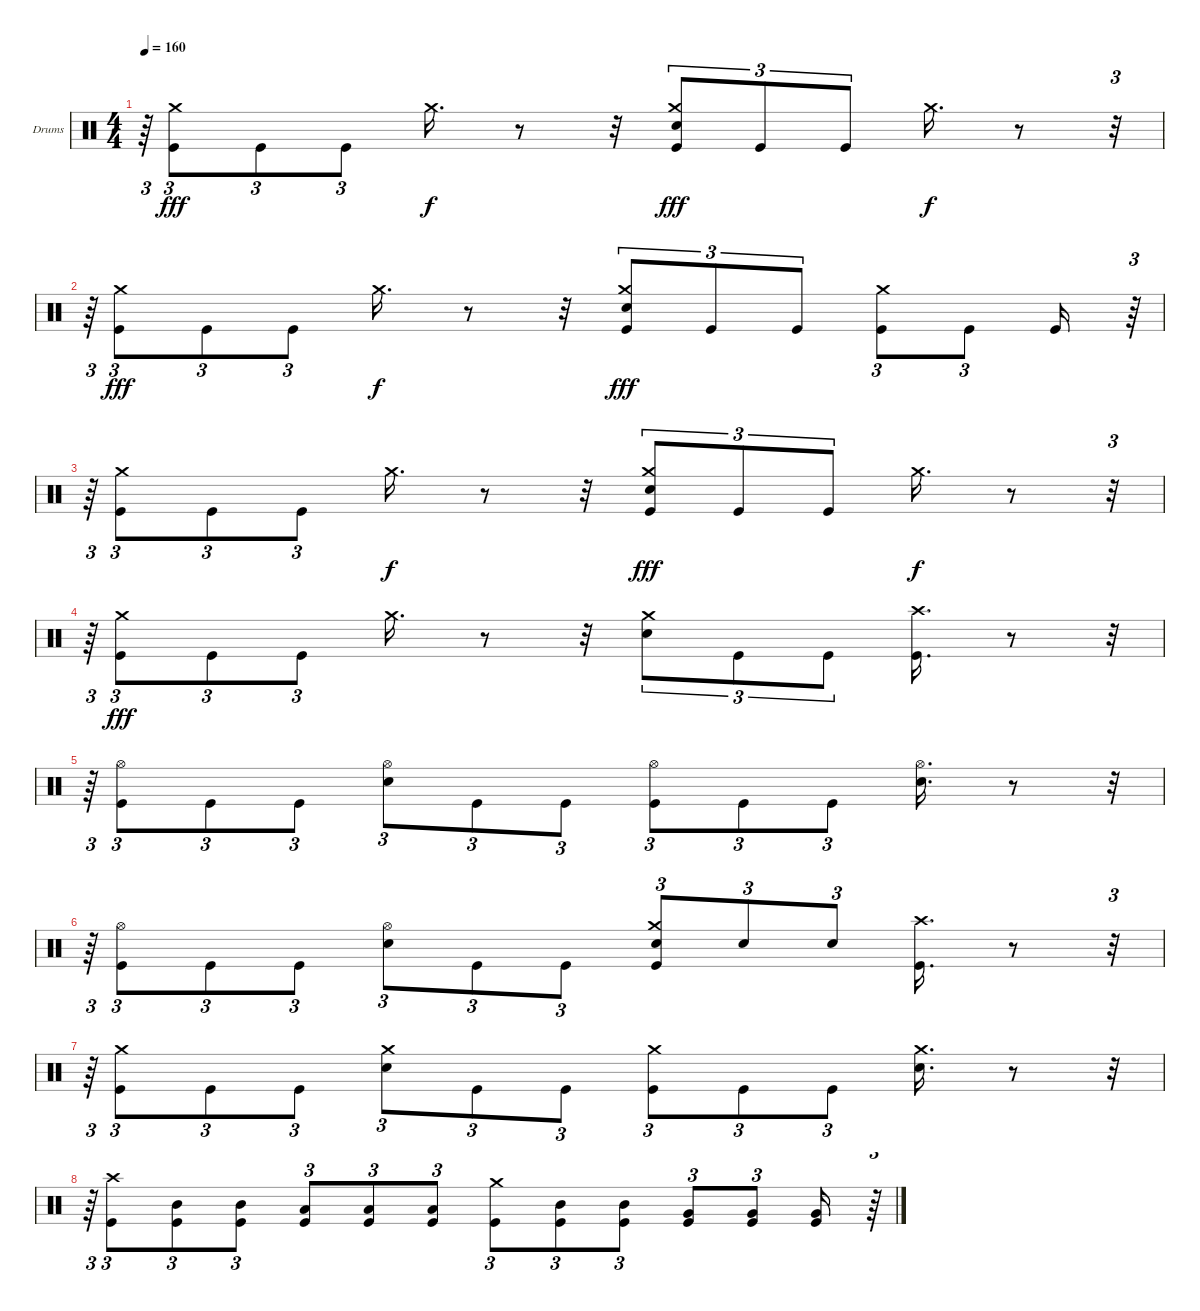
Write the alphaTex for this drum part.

\bracketExtendMode groupsimilarinstruments
\firstSystemTrackNameOrientation horizontal
\otherSystemsTrackNameOrientation horizontal
\track ("Drums" "Drums") {instrument percussion}
\staff {score}
\articulation defaults
\ts (4 4)
\tempo 160
\clef neutral
\ks c
r.64{tu (3 2) dy fff} ("Kick (hit)" "Crash medium (hit)").8{tu (3 2)} "Kick (hit)".8{tu (3 2)} "Kick (hit)".8{tu (3 2)} "Crash medium (hit)".16{d dy f} r.8 r.32 ("Snare (hit) 2" "Kick (hit)" "Crash medium (hit)").8{tu (3 2) dy fff} "Kick (hit)".8{tu (3 2)} "Kick (hit)".8{tu (3 2)} "Crash medium (hit)".16{d dy f} r.8 r.32{tu (3 2)} |
r.64{tu (3 2)} ("Kick (hit)" "Crash medium (hit)").8{tu (3 2) dy fff} "Kick (hit)".8{tu (3 2)} "Kick (hit)".8{tu (3 2)} "Crash medium (hit)".16{d dy f} r.8 r.32 ("Kick (hit)" "Snare (hit) 2" "Crash medium (hit)").8{tu (3 2) dy fff} "Kick (hit)".8{tu (3 2)} "Kick (hit)".8{tu (3 2)} ("Kick (hit)" "Crash medium (hit)").8{tu (3 2)} "Kick (hit)".8{tu (3 2)} "Kick (hit)".16 r.64{tu (3 2)} |
r.64{tu (3 2)} ("Kick (hit)" "Crash medium (hit)").8{tu (3 2)} "Kick (hit)".8{tu (3 2)} "Kick (hit)".8{tu (3 2)} "Crash medium (hit)".16{d dy f} r.8 r.32 ("Snare (hit) 2" "Kick (hit)" "Crash medium (hit)").8{tu (3 2) dy fff} "Kick (hit)".8{tu (3 2)} "Kick (hit)".8{tu (3 2)} "Crash medium (hit)".16{d dy f} r.8 r.32{tu (3 2)} |
r.64{tu (3 2)} ("Crash medium (hit)" "Kick (hit)").8{tu (3 2) dy fff} "Kick (hit)".8{tu (3 2)} "Kick (hit)".8{tu (3 2)} "Crash medium (hit)".16{d} r.8 r.32 ("Crash medium (hit)" "Snare (hit) 2").8{tu (3 2)} "Kick (hit)".8{tu (3 2)} "Kick (hit)".8{tu (3 2)} ("Kick (hit)" "Crash high (hit)").16{d} r.8 r.32{tu (3 2)} |
r.64{tu (3 2)} ("Hi-Hat (open)" "Kick (hit)").8{tu (3 2)} "Kick (hit)".8{tu (3 2)} "Kick (hit)".8{tu (3 2)} ("Hi-Hat (open)" "Snare (hit) 2").8{tu (3 2)} "Kick (hit)".8{tu (3 2)} "Kick (hit)".8{tu (3 2)} ("Kick (hit)" "Hi-Hat (open)").8{tu (3 2)} "Kick (hit)".8{tu (3 2)} "Kick (hit)".8{tu (3 2)} ("Snare (hit) 2" "Hi-Hat (open)").16{d} r.8 r.32{tu (3 2)} |
r.64{tu (3 2)} ("Hi-Hat (open)" "Kick (hit)").8{tu (3 2)} "Kick (hit)".8{tu (3 2)} "Kick (hit)".8{tu (3 2)} ("Hi-Hat (open)" "Snare (hit) 2").8{tu (3 2)} "Kick (hit)".8{tu (3 2)} "Kick (hit)".8{tu (3 2)} ("Kick (hit)" "Crash medium (hit)" "Snare (hit) 2").8{tu (3 2)} "Snare (hit) 2".8{tu (3 2)} "Snare (hit) 2".8{tu (3 2)} ("Kick (hit)" "Crash high (hit)").16{d} r.8 r.32{tu (3 2)} |
r.64{tu (3 2)} ("Crash medium (hit)" "Kick (hit)").8{tu (3 2)} "Kick (hit)".8{tu (3 2)} "Kick (hit)".8{tu (3 2)} ("Crash medium (hit)" "Snare (hit) 2").8{tu (3 2)} "Kick (hit)".8{tu (3 2)} "Kick (hit)".8{tu (3 2)} ("Crash medium (hit)" "Kick (hit)").8{tu (3 2)} "Kick (hit)".8{tu (3 2)} "Kick (hit)".8{tu (3 2)} ("Crash medium (hit)" "Snare (hit) 2").16{d} r.8 r.32{tu (3 2)} |
r.64{tu (3 2)} ("Kick (hit)" "Crash high (hit)").8{tu (3 2)} ("Mid Tom (hit)" "Kick (hit)").8{tu (3 2)} ("Mid Tom (hit)" "Kick (hit)").8{tu (3 2)} ("Low Tom (hit)" "Kick (hit)").8{tu (3 2)} ("Low Tom (hit)" "Kick (hit)").8{tu (3 2)} ("Low Tom (hit)" "Kick (hit)").8{tu (3 2)} ("Kick (hit)" "Crash medium (hit)").8{tu (3 2)} ("Mid Tom (hit)" "Kick (hit)").8{tu (3 2)} ("Mid Tom (hit)" "Kick (hit)").8{tu (3 2)} ("Very Low Tom (hit)" "Kick (hit)").8{tu (3 2)} ("Very Low Tom (hit)" "Kick (hit)").8{tu (3 2)} ("Very Low Tom (hit)" "Kick (hit)").16 r.64{tu (3 2)}
